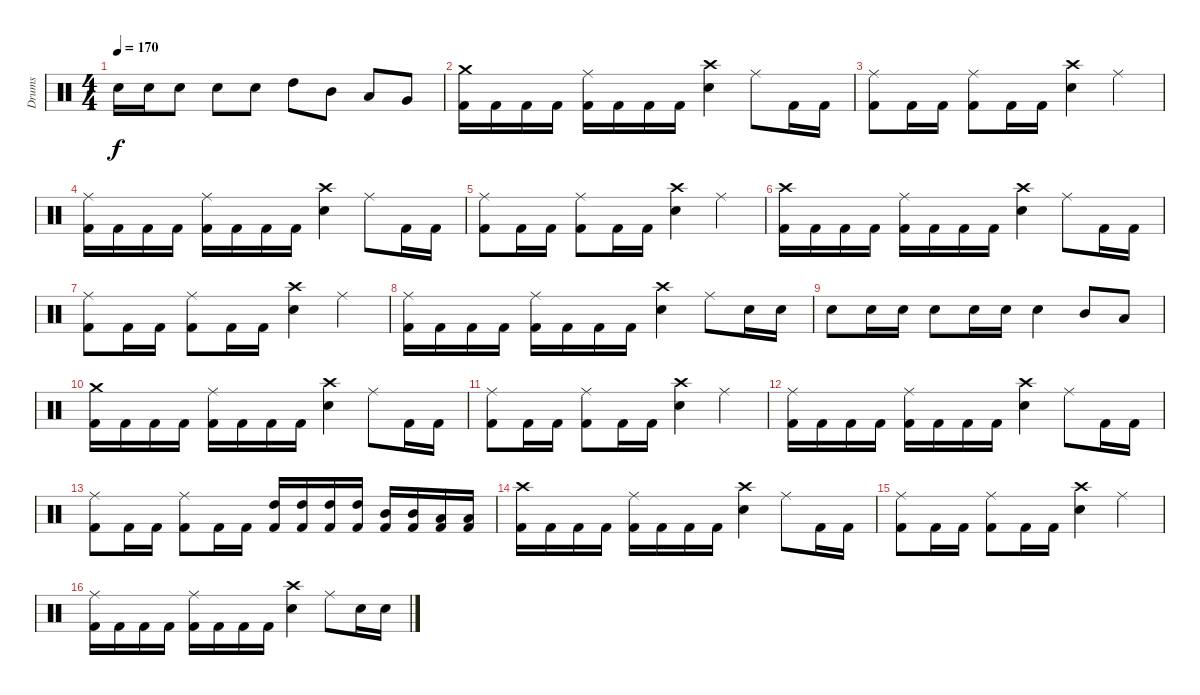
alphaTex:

\track ("Drums" "Drums") {instrument percussion}
\staff {score}
\articulation defaults
\ts (4 4)
\tempo 170
\clef neutral
\ks c "Electric Snare (hit)".16{dy f} "Electric Snare (hit)".16 "Electric Snare (hit)".8 "Electric Snare (hit)".8 "Electric Snare (hit)".8 "High Tom (hit)".8 "Mid Tom (hit)".8 "Low Tom (hit)".8 "Very Low Tom (hit)".8
|
\section ("" "")
("Kick (hit) 2" "Crash medium (hit)").16 "Kick (hit) 2".16 "Kick (hit) 2".16 "Kick (hit) 2".16 ("Kick (hit) 2" "Ride (middle)").16 "Kick (hit) 2".16 "Kick (hit) 2".16 "Kick (hit) 2".16 ("Electric Snare (hit)" "Crash high (hit)").4 "Ride (middle)".8 "Kick (hit) 2".16 "Kick (hit) 2".16 |
("Kick (hit) 2" "Ride (middle)").8 "Kick (hit) 2".16 "Kick (hit) 2".16 ("Kick (hit) 2" "Ride (middle)").8 "Kick (hit) 2".16 "Kick (hit) 2".16 ("Electric Snare (hit)" "Crash high (hit)").4 "Ride (middle)".4 |
("Kick (hit) 2" "Ride (middle)").16 "Kick (hit) 2".16 "Kick (hit) 2".16 "Kick (hit) 2".16 ("Kick (hit) 2" "Ride (middle)").16 "Kick (hit) 2".16 "Kick (hit) 2".16 "Kick (hit) 2".16 ("Electric Snare (hit)" "Crash high (hit)").4 "Ride (middle)".8 "Kick (hit) 2".16 "Kick (hit) 2".16 |
("Kick (hit) 2" "Ride (middle)").8 "Kick (hit) 2".16 "Kick (hit) 2".16 ("Kick (hit) 2" "Ride (middle)").8 "Kick (hit) 2".16 "Kick (hit) 2".16 ("Electric Snare (hit)" "Crash high (hit)").4 "Ride (middle)".4 |
("Kick (hit) 2" "Crash high (hit)").16 "Kick (hit) 2".16 "Kick (hit) 2".16 "Kick (hit) 2".16 ("Kick (hit) 2" "Ride (middle)").16 "Kick (hit) 2".16 "Kick (hit) 2".16 "Kick (hit) 2".16 ("Electric Snare (hit)" "Crash high (hit)").4 "Ride (middle)".8 "Kick (hit) 2".16 "Kick (hit) 2".16 |
("Kick (hit) 2" "Ride (middle)").8 "Kick (hit) 2".16 "Kick (hit) 2".16 ("Kick (hit) 2" "Ride (middle)").8 "Kick (hit) 2".16 "Kick (hit) 2".16 ("Electric Snare (hit)" "Crash high (hit)").4 "Ride (middle)".4 |
("Kick (hit) 2" "Ride (middle)").16 "Kick (hit) 2".16 "Kick (hit) 2".16 "Kick (hit) 2".16 ("Kick (hit) 2" "Ride (middle)").16 "Kick (hit) 2".16 "Kick (hit) 2".16 "Kick (hit) 2".16 ("Electric Snare (hit)" "Crash high (hit)").4 "Ride (middle)".8 "Electric Snare (hit)".16 "Electric Snare (hit)".16 |
"Electric Snare (hit)".8 "Electric Snare (hit)".16 "Electric Snare (hit)".16 "Electric Snare (hit)".8 "Electric Snare (hit)".16 "Electric Snare (hit)".16 "Electric Snare (hit)".4 "Mid Tom (hit)".8 "Low Tom (hit)".8 |
\section ("" "")
("Kick (hit) 2" "Crash medium (hit)").16 "Kick (hit) 2".16 "Kick (hit) 2".16 "Kick (hit) 2".16 ("Kick (hit) 2" "Ride (middle)").16 "Kick (hit) 2".16 "Kick (hit) 2".16 "Kick (hit) 2".16 ("Electric Snare (hit)" "Crash high (hit)").4 "Ride (middle)".8 "Kick (hit) 2".16 "Kick (hit) 2".16 |
("Kick (hit) 2" "Ride (middle)").8 "Kick (hit) 2".16 "Kick (hit) 2".16 ("Kick (hit) 2" "Ride (middle)").8 "Kick (hit) 2".16 "Kick (hit) 2".16 ("Electric Snare (hit)" "Crash high (hit)").4 "Ride (middle)".4 |
("Kick (hit) 2" "Ride (middle)").16 "Kick (hit) 2".16 "Kick (hit) 2".16 "Kick (hit) 2".16 ("Kick (hit) 2" "Ride (middle)").16 "Kick (hit) 2".16 "Kick (hit) 2".16 "Kick (hit) 2".16 ("Electric Snare (hit)" "Crash high (hit)").4 "Ride (middle)".8 "Kick (hit) 2".16 "Kick (hit) 2".16 |
("Kick (hit) 2" "Ride (middle)").8 "Kick (hit) 2".16 "Kick (hit) 2".16 ("Kick (hit) 2" "Ride (middle)").8 "Kick (hit) 2".16 "Kick (hit) 2".16 ("Kick (hit) 2" "High Tom (hit)").16 ("Kick (hit) 2" "High Tom (hit)").16 ("Kick (hit) 2" "High Tom (hit)").16 ("Kick (hit) 2" "High Tom (hit)").16 ("Kick (hit) 2" "Mid Tom (hit)").16 ("Kick (hit) 2" "Mid Tom (hit)").16 ("Kick (hit) 2" "Low Tom (hit)").16 ("Kick (hit) 2" "Low Tom (hit)").16 |
("Kick (hit) 2" "Crash high (hit)").16 "Kick (hit) 2".16 "Kick (hit) 2".16 "Kick (hit) 2".16 ("Kick (hit) 2" "Ride (middle)").16 "Kick (hit) 2".16 "Kick (hit) 2".16 "Kick (hit) 2".16 ("Electric Snare (hit)" "Crash high (hit)").4 "Ride (middle)".8 "Kick (hit) 2".16 "Kick (hit) 2".16 |
("Kick (hit) 2" "Ride (middle)").8 "Kick (hit) 2".16 "Kick (hit) 2".16 ("Kick (hit) 2" "Ride (middle)").8 "Kick (hit) 2".16 "Kick (hit) 2".16 ("Electric Snare (hit)" "Crash high (hit)").4 "Ride (middle)".4 |
("Kick (hit) 2" "Ride (middle)").16 "Kick (hit) 2".16 "Kick (hit) 2".16 "Kick (hit) 2".16 ("Kick (hit) 2" "Ride (middle)").16 "Kick (hit) 2".16 "Kick (hit) 2".16 "Kick (hit) 2".16 ("Electric Snare (hit)" "Crash high (hit)").4 "Ride (middle)".8 "Electric Snare (hit)".16 "Electric Snare (hit)".16
